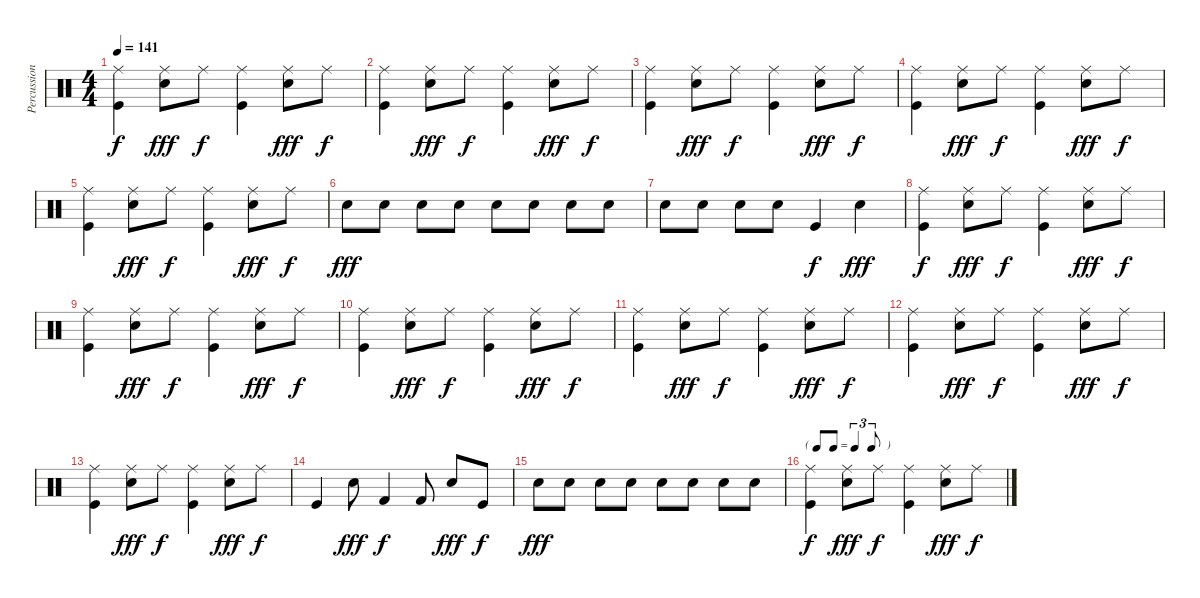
\track ("Percussions" "Percussion") {mute instrument percussion}
\staff {score}
\articulation defaults
\ts (4 4)
\tempo 141
\clef neutral
\ks c
("Kick (hit)" "Ride (middle)").4{dy f} ("Snare (hit) 2" "Ride (middle)").8{dy fff} "Ride (middle)".8{dy f} ("Kick (hit)" "Ride (middle)").4 ("Snare (hit) 2" "Ride (middle)").8{dy fff} "Ride (middle)".8{dy f} |
("Kick (hit)" "Ride (middle)").4 ("Snare (hit) 2" "Ride (middle)").8{dy fff} "Ride (middle)".8{dy f} ("Kick (hit)" "Ride (middle)").4 ("Snare (hit) 2" "Ride (middle)").8{dy fff} "Ride (middle)".8{dy f} |
("Kick (hit)" "Ride (middle)").4 ("Snare (hit) 2" "Ride (middle)").8{dy fff} "Ride (middle)".8{dy f} ("Kick (hit)" "Ride (middle)").4 ("Snare (hit) 2" "Ride (middle)").8{dy fff} "Ride (middle)".8{dy f} |
("Kick (hit)" "Ride (middle)").4 ("Snare (hit) 2" "Ride (middle)").8{dy fff} "Ride (middle)".8{dy f} ("Kick (hit)" "Ride (middle)").4 ("Snare (hit) 2" "Ride (middle)").8{dy fff} "Ride (middle)".8{dy f} |
("Kick (hit)" "Ride (middle)").4 ("Snare (hit) 2" "Ride (middle)").8{dy fff} "Ride (middle)".8{dy f} ("Kick (hit)" "Ride (middle)").4 ("Snare (hit) 2" "Ride (middle)").8{dy fff} "Ride (middle)".8{dy f} |
"Snare (hit) 2".8{dy fff} "Snare (hit) 2".8 "Snare (hit) 2".8 "Snare (hit) 2".8 "Snare (hit) 2".8 "Snare (hit) 2".8 "Snare (hit) 2".8 "Snare (hit) 2".8 |
"Snare (hit) 2".8 "Snare (hit) 2".8 "Snare (hit) 2".8 "Snare (hit) 2".8 "Kick (hit)".4{dy f} "Snare (hit) 2".4{dy fff} |
("Kick (hit)" "Ride (middle)").4{dy f} ("Snare (hit) 2" "Ride (middle)").8{dy fff} "Ride (middle)".8{dy f} ("Kick (hit)" "Ride (middle)").4 ("Snare (hit) 2" "Ride (middle)").8{dy fff} "Ride (middle)".8{dy f} |
("Kick (hit)" "Ride (middle)").4 ("Snare (hit) 2" "Ride (middle)").8{dy fff} "Ride (middle)".8{dy f} ("Kick (hit)" "Ride (middle)").4 ("Snare (hit) 2" "Ride (middle)").8{dy fff} "Ride (middle)".8{dy f} |
("Kick (hit)" "Ride (middle)").4 ("Snare (hit) 2" "Ride (middle)").8{dy fff} "Ride (middle)".8{dy f} ("Kick (hit)" "Ride (middle)").4 ("Snare (hit) 2" "Ride (middle)").8{dy fff} "Ride (middle)".8{dy f} |
("Kick (hit)" "Ride (middle)").4 ("Snare (hit) 2" "Ride (middle)").8{dy fff} "Ride (middle)".8{dy f} ("Kick (hit)" "Ride (middle)").4 ("Snare (hit) 2" "Ride (middle)").8{dy fff} "Ride (middle)".8{dy f} |
("Kick (hit)" "Ride (middle)").4 ("Snare (hit) 2" "Ride (middle)").8{dy fff} "Ride (middle)".8{dy f} ("Kick (hit)" "Ride (middle)").4 ("Snare (hit) 2" "Ride (middle)").8{dy fff} "Ride (middle)".8{dy f} |
("Kick (hit)" "Ride (middle)").4 ("Snare (hit) 2" "Ride (middle)").8{dy fff} "Ride (middle)".8{dy f} ("Kick (hit)" "Ride (middle)").4 ("Snare (hit) 2" "Ride (middle)").8{dy fff} "Ride (middle)".8{dy f} |
"Kick (hit)".4 "Snare (hit) 2".8{dy fff} "Kick (hit) 2".4{dy f} "Kick (hit) 2".8 "Snare (hit) 2".8{dy fff} "Kick (hit)".8{dy f} |
"Snare (hit) 2".8{dy fff} "Snare (hit) 2".8 "Snare (hit) 2".8 "Snare (hit) 2".8 "Snare (hit) 2".8 "Snare (hit) 2".8 "Snare (hit) 2".8 "Snare (hit) 2".8 |
\tf triplet8th
("Kick (hit)" "Ride (middle)").4{dy f} ("Snare (hit) 2" "Ride (middle)").8{dy fff} "Ride (middle)".8{dy f} ("Kick (hit)" "Ride (middle)").4 ("Snare (hit) 2" "Ride (middle)").8{dy fff} "Ride (middle)".8{dy f}
